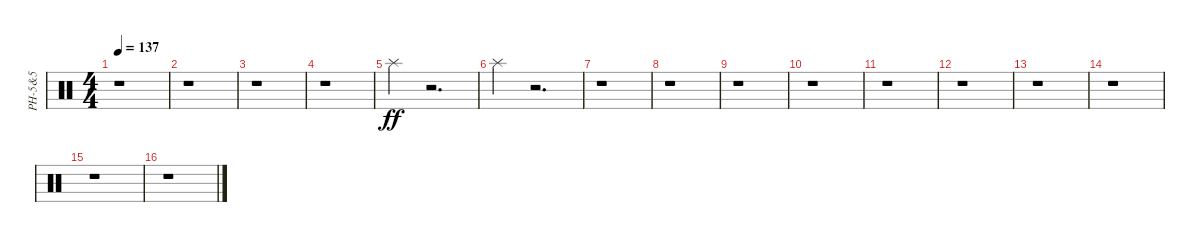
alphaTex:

\track ("PH-5&5" "PH-5&5") {instrument percussion}
\staff {score}
\articulation defaults
\ts (4 4)
\tempo 137
\clef neutral
\ks c
r.1{dy ff} |
r.1 |
r.1 |
r.1 |
"Splash (hit)".4 r.2{d} |
"Splash (hit)".4 r.2{d} |
r.1 |
r.1 |
r.1 |
r.1 |
r.1 |
r.1 |
r.1 |
r.1 |
r.1 |
r.1
